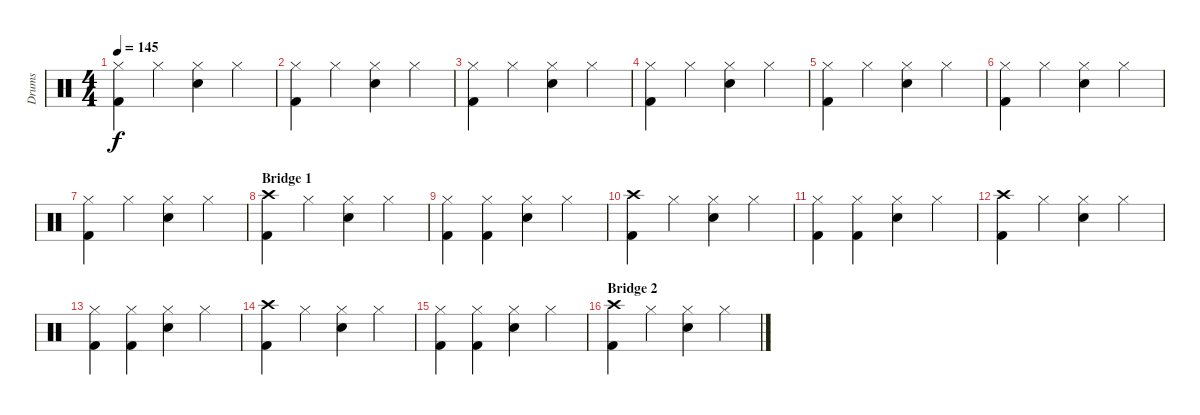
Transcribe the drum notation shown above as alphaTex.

\track ("Drums" "Drums") {instrument percussion}
\staff {score}
\articulation defaults
\ts (4 4)
\tempo 145
\clef neutral
\ks c
("Hi-Hat (closed)" "Kick (hit) 2").4{dy f} "Hi-Hat (closed)".4 ("Hi-Hat (closed)" "Electric Snare (hit)").4 "Hi-Hat (closed)".4 |
("Hi-Hat (closed)" "Kick (hit) 2").4 "Hi-Hat (closed)".4 ("Hi-Hat (closed)" "Electric Snare (hit)").4 "Hi-Hat (closed)".4 |
("Hi-Hat (closed)" "Kick (hit) 2").4 "Hi-Hat (closed)".4 ("Hi-Hat (closed)" "Electric Snare (hit)").4 "Hi-Hat (closed)".4 |
("Hi-Hat (closed)" "Kick (hit) 2").4 "Hi-Hat (closed)".4 ("Hi-Hat (closed)" "Electric Snare (hit)").4 "Hi-Hat (closed)".4 |
("Hi-Hat (closed)" "Kick (hit) 2").4 "Hi-Hat (closed)".4 ("Hi-Hat (closed)" "Electric Snare (hit)").4 "Hi-Hat (closed)".4 |
("Hi-Hat (closed)" "Kick (hit) 2").4 "Hi-Hat (closed)".4 ("Hi-Hat (closed)" "Electric Snare (hit)").4 "Hi-Hat (closed)".4 |
("Hi-Hat (closed)" "Kick (hit) 2").4 "Hi-Hat (closed)".4 ("Hi-Hat (closed)" "Electric Snare (hit)").4 "Hi-Hat (closed)".4 |
\section ("" "Bridge 1")
("Crash high (hit)" "Kick (hit) 2").4 "Hi-Hat (closed)".4 ("Hi-Hat (closed)" "Electric Snare (hit)").4 "Hi-Hat (closed)".4 |
("Hi-Hat (closed)" "Kick (hit) 2").4 ("Hi-Hat (closed)" "Kick (hit) 2").4 ("Hi-Hat (closed)" "Electric Snare (hit)").4 "Hi-Hat (closed)".4 |
("Crash high (hit)" "Kick (hit) 2").4 "Hi-Hat (closed)".4 ("Hi-Hat (closed)" "Electric Snare (hit)").4 "Hi-Hat (closed)".4 |
("Hi-Hat (closed)" "Kick (hit) 2").4 ("Hi-Hat (closed)" "Kick (hit) 2").4 ("Hi-Hat (closed)" "Electric Snare (hit)").4 "Hi-Hat (closed)".4 |
("Crash high (hit)" "Kick (hit) 2").4 "Hi-Hat (closed)".4 ("Hi-Hat (closed)" "Electric Snare (hit)").4 "Hi-Hat (closed)".4 |
("Hi-Hat (closed)" "Kick (hit) 2").4 ("Hi-Hat (closed)" "Kick (hit) 2").4 ("Hi-Hat (closed)" "Electric Snare (hit)").4 "Hi-Hat (closed)".4 |
("Crash high (hit)" "Kick (hit) 2").4 "Hi-Hat (closed)".4 ("Hi-Hat (closed)" "Electric Snare (hit)").4 "Hi-Hat (closed)".4 |
("Hi-Hat (closed)" "Kick (hit) 2").4 ("Hi-Hat (closed)" "Kick (hit) 2").4 ("Hi-Hat (closed)" "Electric Snare (hit)").4 "Hi-Hat (closed)".4 |
\section ("" "Bridge 2")
("Crash high (hit)" "Kick (hit) 2").4 "Hi-Hat (closed)".4 ("Hi-Hat (closed)" "Electric Snare (hit)").4 "Hi-Hat (closed)".4
